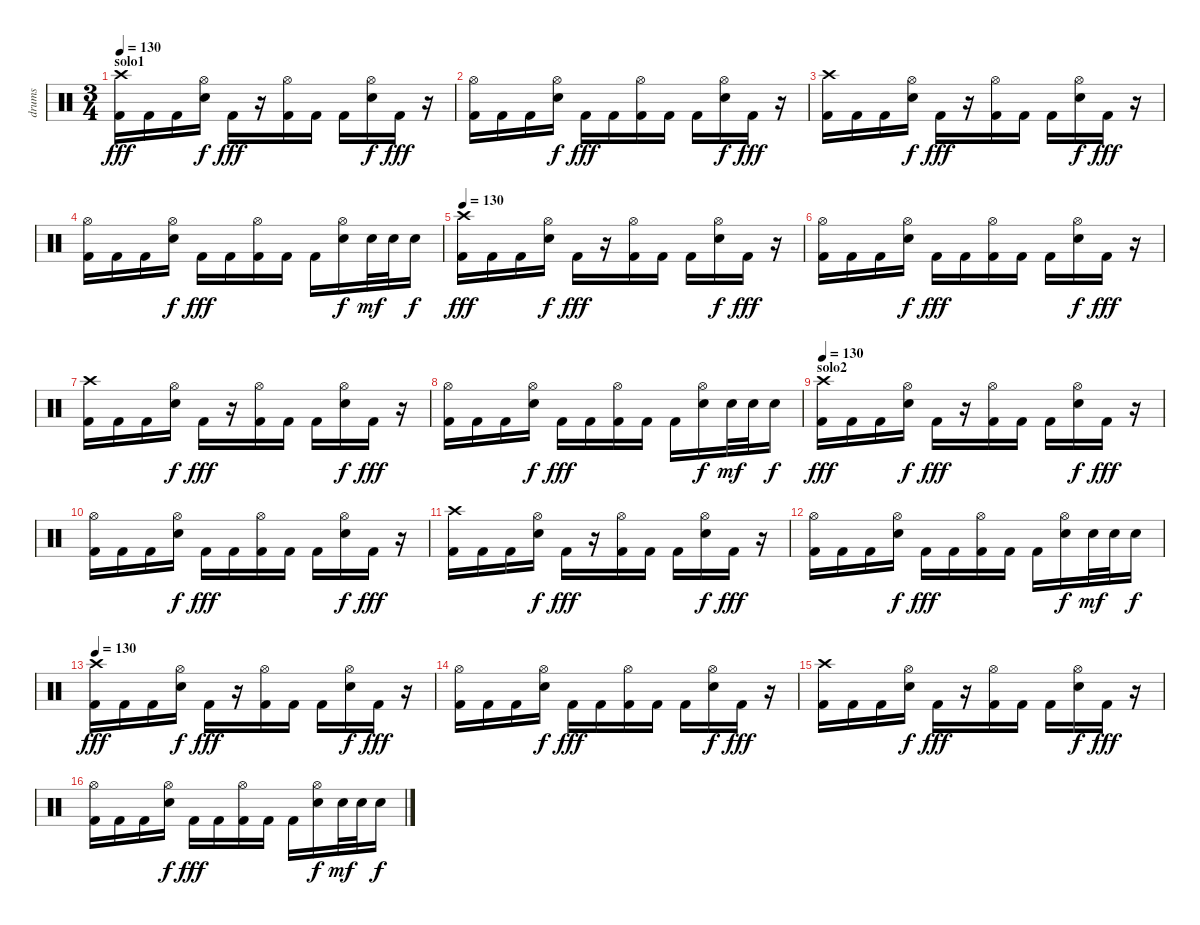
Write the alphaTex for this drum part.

\track ("drums" "drums") {instrument percussion}
\staff {score}
\articulation defaults
\ts (3 4)
\section ("" "solo1")
\tempo 130
\clef neutral
\ks c
("Crash high (hit)" "Kick (hit) 2").16{dy fff} "Kick (hit) 2".16 "Kick (hit) 2".16 ("Hi-Hat (open)" "Snare (hit) 2").16{dy f} "Kick (hit) 2".16{dy fff} r.16 ("Hi-Hat (open)" "Kick (hit) 2").16 "Kick (hit) 2".16 "Kick (hit) 2".16 ("Hi-Hat (open)" "Snare (hit) 2").16{dy f} "Kick (hit) 2".16{dy fff} r.16 |
("Hi-Hat (open)" "Kick (hit) 2").16 "Kick (hit) 2".16 "Kick (hit) 2".16 ("Hi-Hat (open)" "Snare (hit) 2").16{dy f} "Kick (hit) 2".16{dy fff} "Kick (hit) 2".16 ("Hi-Hat (open)" "Kick (hit) 2").16 "Kick (hit) 2".16 "Kick (hit) 2".16 ("Hi-Hat (open)" "Snare (hit) 2").16{dy f} "Kick (hit) 2".16{dy fff} r.16 |
("Crash high (hit)" "Kick (hit) 2").16 "Kick (hit) 2".16 "Kick (hit) 2".16 ("Hi-Hat (open)" "Snare (hit) 2").16{dy f} "Kick (hit) 2".16{dy fff} r.16 ("Hi-Hat (open)" "Kick (hit) 2").16 "Kick (hit) 2".16 "Kick (hit) 2".16 ("Hi-Hat (open)" "Snare (hit) 2").16{dy f} "Kick (hit) 2".16{dy fff} r.16 |
("Hi-Hat (open)" "Kick (hit) 2").16 "Kick (hit) 2".16 "Kick (hit) 2".16 ("Hi-Hat (open)" "Snare (hit) 2").16{dy f} "Kick (hit) 2".16{dy fff} "Kick (hit) 2".16 ("Hi-Hat (open)" "Kick (hit) 2").16 "Kick (hit) 2".16 "Kick (hit) 2".16 ("Hi-Hat (open)" "Snare (hit) 2").16{dy f} "Snare (hit) 2".32{dy mf} "Snare (hit) 2".32 "Snare (hit) 2".16{dy f} |
\tempo 130
("Crash high (hit)" "Kick (hit) 2").16{dy fff} "Kick (hit) 2".16 "Kick (hit) 2".16 ("Hi-Hat (open)" "Snare (hit) 2").16{dy f} "Kick (hit) 2".16{dy fff} r.16 ("Hi-Hat (open)" "Kick (hit) 2").16 "Kick (hit) 2".16 "Kick (hit) 2".16 ("Hi-Hat (open)" "Snare (hit) 2").16{dy f} "Kick (hit) 2".16{dy fff} r.16 |
("Hi-Hat (open)" "Kick (hit) 2").16 "Kick (hit) 2".16 "Kick (hit) 2".16 ("Hi-Hat (open)" "Snare (hit) 2").16{dy f} "Kick (hit) 2".16{dy fff} "Kick (hit) 2".16 ("Hi-Hat (open)" "Kick (hit) 2").16 "Kick (hit) 2".16 "Kick (hit) 2".16 ("Hi-Hat (open)" "Snare (hit) 2").16{dy f} "Kick (hit) 2".16{dy fff} r.16 |
("Crash high (hit)" "Kick (hit) 2").16 "Kick (hit) 2".16 "Kick (hit) 2".16 ("Hi-Hat (open)" "Snare (hit) 2").16{dy f} "Kick (hit) 2".16{dy fff} r.16 ("Hi-Hat (open)" "Kick (hit) 2").16 "Kick (hit) 2".16 "Kick (hit) 2".16 ("Hi-Hat (open)" "Snare (hit) 2").16{dy f} "Kick (hit) 2".16{dy fff} r.16 |
("Hi-Hat (open)" "Kick (hit) 2").16 "Kick (hit) 2".16 "Kick (hit) 2".16 ("Hi-Hat (open)" "Snare (hit) 2").16{dy f} "Kick (hit) 2".16{dy fff} "Kick (hit) 2".16 ("Hi-Hat (open)" "Kick (hit) 2").16 "Kick (hit) 2".16 "Kick (hit) 2".16 ("Hi-Hat (open)" "Snare (hit) 2").16{dy f} "Snare (hit) 2".32{dy mf} "Snare (hit) 2".32 "Snare (hit) 2".16{dy f} |
\section ("" "solo2")
\tempo 130
("Crash high (hit)" "Kick (hit) 2").16{dy fff} "Kick (hit) 2".16 "Kick (hit) 2".16 ("Hi-Hat (open)" "Snare (hit) 2").16{dy f} "Kick (hit) 2".16{dy fff} r.16 ("Hi-Hat (open)" "Kick (hit) 2").16 "Kick (hit) 2".16 "Kick (hit) 2".16 ("Hi-Hat (open)" "Snare (hit) 2").16{dy f} "Kick (hit) 2".16{dy fff} r.16 |
("Hi-Hat (open)" "Kick (hit) 2").16 "Kick (hit) 2".16 "Kick (hit) 2".16 ("Hi-Hat (open)" "Snare (hit) 2").16{dy f} "Kick (hit) 2".16{dy fff} "Kick (hit) 2".16 ("Hi-Hat (open)" "Kick (hit) 2").16 "Kick (hit) 2".16 "Kick (hit) 2".16 ("Hi-Hat (open)" "Snare (hit) 2").16{dy f} "Kick (hit) 2".16{dy fff} r.16 |
("Crash high (hit)" "Kick (hit) 2").16 "Kick (hit) 2".16 "Kick (hit) 2".16 ("Hi-Hat (open)" "Snare (hit) 2").16{dy f} "Kick (hit) 2".16{dy fff} r.16 ("Hi-Hat (open)" "Kick (hit) 2").16 "Kick (hit) 2".16 "Kick (hit) 2".16 ("Hi-Hat (open)" "Snare (hit) 2").16{dy f} "Kick (hit) 2".16{dy fff} r.16 |
("Hi-Hat (open)" "Kick (hit) 2").16 "Kick (hit) 2".16 "Kick (hit) 2".16 ("Hi-Hat (open)" "Snare (hit) 2").16{dy f} "Kick (hit) 2".16{dy fff} "Kick (hit) 2".16 ("Hi-Hat (open)" "Kick (hit) 2").16 "Kick (hit) 2".16 "Kick (hit) 2".16 ("Hi-Hat (open)" "Snare (hit) 2").16{dy f} "Snare (hit) 2".32{dy mf} "Snare (hit) 2".32 "Snare (hit) 2".16{dy f} |
\tempo 130
("Crash high (hit)" "Kick (hit) 2").16{dy fff} "Kick (hit) 2".16 "Kick (hit) 2".16 ("Hi-Hat (open)" "Snare (hit) 2").16{dy f} "Kick (hit) 2".16{dy fff} r.16 ("Hi-Hat (open)" "Kick (hit) 2").16 "Kick (hit) 2".16 "Kick (hit) 2".16 ("Hi-Hat (open)" "Snare (hit) 2").16{dy f} "Kick (hit) 2".16{dy fff} r.16 |
("Hi-Hat (open)" "Kick (hit) 2").16 "Kick (hit) 2".16 "Kick (hit) 2".16 ("Hi-Hat (open)" "Snare (hit) 2").16{dy f} "Kick (hit) 2".16{dy fff} "Kick (hit) 2".16 ("Hi-Hat (open)" "Kick (hit) 2").16 "Kick (hit) 2".16 "Kick (hit) 2".16 ("Hi-Hat (open)" "Snare (hit) 2").16{dy f} "Kick (hit) 2".16{dy fff} r.16 |
("Crash high (hit)" "Kick (hit) 2").16 "Kick (hit) 2".16 "Kick (hit) 2".16 ("Hi-Hat (open)" "Snare (hit) 2").16{dy f} "Kick (hit) 2".16{dy fff} r.16 ("Hi-Hat (open)" "Kick (hit) 2").16 "Kick (hit) 2".16 "Kick (hit) 2".16 ("Hi-Hat (open)" "Snare (hit) 2").16{dy f} "Kick (hit) 2".16{dy fff} r.16 |
("Hi-Hat (open)" "Kick (hit) 2").16 "Kick (hit) 2".16 "Kick (hit) 2".16 ("Hi-Hat (open)" "Snare (hit) 2").16{dy f} "Kick (hit) 2".16{dy fff} "Kick (hit) 2".16 ("Hi-Hat (open)" "Kick (hit) 2").16 "Kick (hit) 2".16 "Kick (hit) 2".16 ("Hi-Hat (open)" "Snare (hit) 2").16{dy f} "Snare (hit) 2".32{dy mf} "Snare (hit) 2".32 "Snare (hit) 2".16{dy f}
